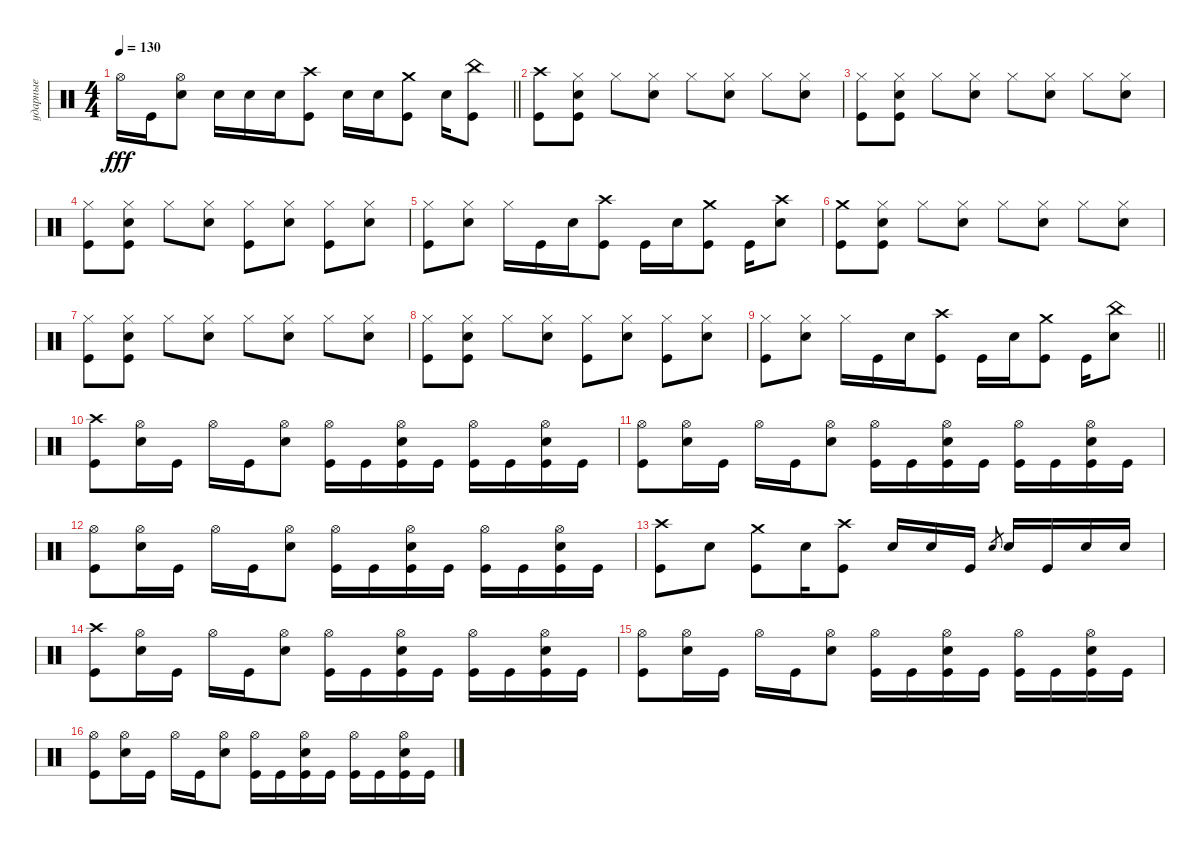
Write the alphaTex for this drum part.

\track ("ударные" "ударные") {instrument percussion}
\staff {score}
\articulation defaults
\ts (4 4)
\tempo 130
\clef neutral
\barLineRight lightlight
\ks c "Hi-Hat (open)".16{dy fff} "Kick (hit)".16
("Hi-Hat (open)" "Snare (hit) 2").8 "Snare (hit) 2".16 "Snare (hit) 2".16 "Snare (hit) 2".16 ("Crash high (hit)" "Kick (hit)").8 "Snare (hit) 2".16 "Snare (hit) 2".16 ("Crash medium (hit)" "Kick (hit)").8 "Snare (hit) 2".16 ("China (hit)" "Kick (hit)").8 |
("Crash high (hit)" "Kick (hit)").8 ("Hi-Hat (closed)" "Snare (hit) 2" "Kick (hit)").8 "Hi-Hat (closed)".8 ("Hi-Hat (closed)" "Snare (hit) 2").8 "Hi-Hat (closed)".8 ("Hi-Hat (closed)" "Snare (hit) 2").8 "Hi-Hat (closed)".8 ("Hi-Hat (closed)" "Snare (hit) 2").8 |
("Hi-Hat (closed)" "Kick (hit)").8 ("Hi-Hat (closed)" "Snare (hit) 2" "Kick (hit)").8 "Hi-Hat (closed)".8 ("Hi-Hat (closed)" "Snare (hit) 2").8 "Hi-Hat (closed)".8 ("Hi-Hat (closed)" "Snare (hit) 2").8 "Hi-Hat (closed)".8 ("Hi-Hat (closed)" "Snare (hit) 2").8 |
("Hi-Hat (closed)" "Kick (hit)").8 ("Hi-Hat (closed)" "Snare (hit) 2" "Kick (hit)").8 "Hi-Hat (closed)".8 ("Hi-Hat (closed)" "Snare (hit) 2").8 ("Hi-Hat (closed)" "Kick (hit)").8 ("Hi-Hat (closed)" "Snare (hit) 2").8 ("Hi-Hat (closed)" "Kick (hit)").8 ("Hi-Hat (closed)" "Snare (hit) 2").8 |
("Hi-Hat (closed)" "Kick (hit)").8 ("Hi-Hat (closed)" "Snare (hit) 2").8 "Hi-Hat (closed)".16 "Kick (hit)".16 "Snare (hit) 2".16 ("Crash high (hit)" "Kick (hit)").8 "Kick (hit)".16 "Snare (hit) 2".16 ("Crash medium (hit)" "Kick (hit)").8 "Kick (hit)".16 ("Crash high (hit)" "Snare (hit) 2").8 |
("Crash medium (hit)" "Kick (hit)").8 ("Hi-Hat (closed)" "Snare (hit) 2" "Kick (hit)").8 "Hi-Hat (closed)".8 ("Hi-Hat (closed)" "Snare (hit) 2").8 "Hi-Hat (closed)".8 ("Hi-Hat (closed)" "Snare (hit) 2").8 "Hi-Hat (closed)".8 ("Hi-Hat (closed)" "Snare (hit) 2").8 |
("Hi-Hat (closed)" "Kick (hit)").8 ("Hi-Hat (closed)" "Snare (hit) 2" "Kick (hit)").8 "Hi-Hat (closed)".8 ("Hi-Hat (closed)" "Snare (hit) 2").8 "Hi-Hat (closed)".8 ("Hi-Hat (closed)" "Snare (hit) 2").8 "Hi-Hat (closed)".8 ("Hi-Hat (closed)" "Snare (hit) 2").8 |
("Hi-Hat (closed)" "Kick (hit)").8 ("Hi-Hat (closed)" "Snare (hit) 2" "Kick (hit)").8 "Hi-Hat (closed)".8 ("Hi-Hat (closed)" "Snare (hit) 2").8 ("Hi-Hat (closed)" "Kick (hit)").8 ("Hi-Hat (closed)" "Snare (hit) 2").8 ("Hi-Hat (closed)" "Kick (hit)").8 ("Hi-Hat (closed)" "Snare (hit) 2").8 |
\barLineRight lightlight
("Hi-Hat (closed)" "Kick (hit)").8 ("Hi-Hat (closed)" "Snare (hit) 2").8 "Hi-Hat (closed)".16 "Kick (hit)".16 "Snare (hit) 2".16 ("Crash high (hit)" "Kick (hit)").8 "Kick (hit)".16 "Snare (hit) 2".16 ("Crash medium (hit)" "Kick (hit)").8 "Kick (hit)".16 ("China (hit)" "Snare (hit) 2").8 |
("Crash high (hit)" "Kick (hit)").8 ("Hi-Hat (open)" "Snare (hit) 2").16 "Kick (hit)".16 "Hi-Hat (open)".16 "Kick (hit)".16 ("Hi-Hat (open)" "Snare (hit) 2").8 ("Hi-Hat (open)" "Kick (hit)").16 "Kick (hit)".16 ("Hi-Hat (open)" "Snare (hit) 2" "Kick (hit)").16 "Kick (hit)".16 ("Hi-Hat (open)" "Kick (hit)").16 "Kick (hit)".16 ("Hi-Hat (open)" "Snare (hit) 2" "Kick (hit)").16 "Kick (hit)".16 |
("Hi-Hat (open)" "Kick (hit)").8 ("Hi-Hat (open)" "Snare (hit) 2").16 "Kick (hit)".16 "Hi-Hat (open)".16 "Kick (hit)".16 ("Hi-Hat (open)" "Snare (hit) 2").8 ("Hi-Hat (open)" "Kick (hit)").16 "Kick (hit)".16 ("Hi-Hat (open)" "Snare (hit) 2" "Kick (hit)").16 "Kick (hit)".16 ("Hi-Hat (open)" "Kick (hit)").16 "Kick (hit)".16 ("Hi-Hat (open)" "Snare (hit) 2" "Kick (hit)").16 "Kick (hit)".16 |
("Hi-Hat (open)" "Kick (hit)").8 ("Hi-Hat (open)" "Snare (hit) 2").16 "Kick (hit)".16 "Hi-Hat (open)".16 "Kick (hit)".16 ("Hi-Hat (open)" "Snare (hit) 2").8 ("Hi-Hat (open)" "Kick (hit)").16 "Kick (hit)".16 ("Hi-Hat (open)" "Snare (hit) 2" "Kick (hit)").16 "Kick (hit)".16 ("Hi-Hat (open)" "Kick (hit)").16 "Kick (hit)".16 ("Hi-Hat (open)" "Snare (hit) 2" "Kick (hit)").16 "Kick (hit)".16 |
("Crash high (hit)" "Kick (hit)").8 "Snare (hit) 2".8 ("Crash medium (hit)" "Kick (hit)").8 "Snare (hit) 2".16 ("Crash high (hit)" "Kick (hit)").8 "Snare (hit) 2".16 "Snare (hit) 2".16 "Kick (hit)".16 "Snare (hit)".8{gr} "Snare (hit) 2".16 "Kick (hit)".16 "Snare (hit) 2".16 "Snare (hit) 2".16 |
("Crash high (hit)" "Kick (hit)").8 ("Hi-Hat (open)" "Snare (hit) 2").16 "Kick (hit)".16 "Hi-Hat (open)".16 "Kick (hit)".16 ("Hi-Hat (open)" "Snare (hit) 2").8 ("Hi-Hat (open)" "Kick (hit)").16 "Kick (hit)".16 ("Hi-Hat (open)" "Snare (hit) 2" "Kick (hit)").16 "Kick (hit)".16 ("Hi-Hat (open)" "Kick (hit)").16 "Kick (hit)".16 ("Hi-Hat (open)" "Snare (hit) 2" "Kick (hit)").16 "Kick (hit)".16 |
("Hi-Hat (open)" "Kick (hit)").8 ("Hi-Hat (open)" "Snare (hit) 2").16 "Kick (hit)".16 "Hi-Hat (open)".16 "Kick (hit)".16 ("Hi-Hat (open)" "Snare (hit) 2").8 ("Hi-Hat (open)" "Kick (hit)").16 "Kick (hit)".16 ("Hi-Hat (open)" "Snare (hit) 2" "Kick (hit)").16 "Kick (hit)".16 ("Hi-Hat (open)" "Kick (hit)").16 "Kick (hit)".16 ("Hi-Hat (open)" "Snare (hit) 2" "Kick (hit)").16 "Kick (hit)".16 |
("Hi-Hat (open)" "Kick (hit)").8 ("Hi-Hat (open)" "Snare (hit) 2").16 "Kick (hit)".16 "Hi-Hat (open)".16 "Kick (hit)".16 ("Hi-Hat (open)" "Snare (hit) 2").8 ("Hi-Hat (open)" "Kick (hit)").16 "Kick (hit)".16 ("Hi-Hat (open)" "Snare (hit) 2" "Kick (hit)").16 "Kick (hit)".16 ("Hi-Hat (open)" "Kick (hit)").16 "Kick (hit)".16 ("Hi-Hat (open)" "Snare (hit) 2" "Kick (hit)").16 "Kick (hit)".16
